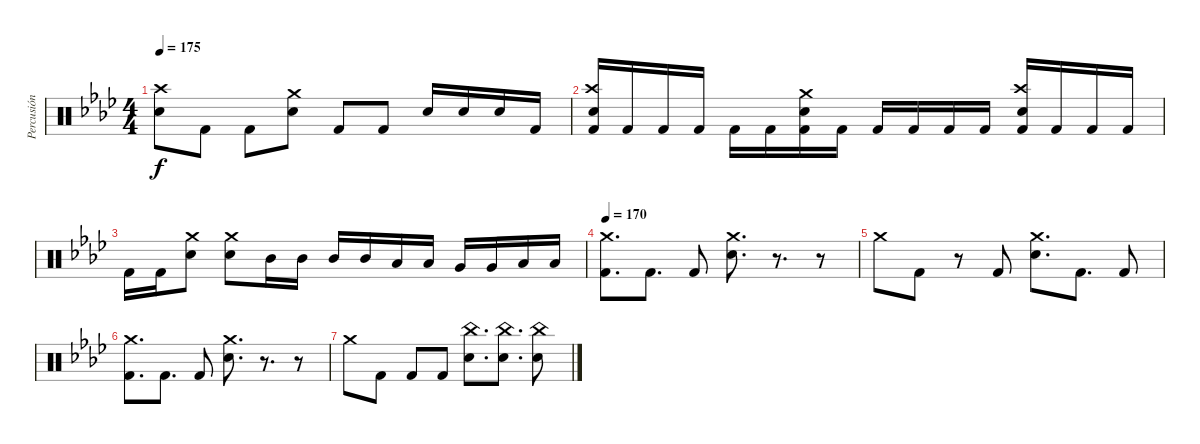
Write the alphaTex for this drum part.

\track ("Percusión" "Percusión") {instrument percussion}
\staff {score}
\articulation defaults
\ts (4 4)
\tempo 175
\clef neutral
\ks fminor
("Snare (hit) 2" "Crash high (hit)").8{dy f} "Kick (hit) 2".8 "Kick (hit) 2".8 ("Snare (hit) 2" "Crash medium (hit)").8 "Kick (hit) 2".8 "Kick (hit) 2".8 "Snare (hit) 2".16 "Snare (hit) 2".16 "Snare (hit) 2".16 "Kick (hit) 2".16 |
("Kick (hit) 2" "Snare (hit) 2" "Crash high (hit)").16 "Kick (hit) 2".16 "Kick (hit) 2".16 "Kick (hit) 2".16 "Kick (hit) 2".16 "Kick (hit) 2".16 ("Kick (hit) 2" "Snare (hit) 2" "Crash medium (hit)").16 "Kick (hit) 2".16 "Kick (hit) 2".16 "Kick (hit) 2".16 "Kick (hit) 2".16 "Kick (hit) 2".16 ("Kick (hit) 2" "Snare (hit) 2" "Crash high (hit)").16 "Kick (hit) 2".16 "Kick (hit) 2".16 "Kick (hit) 2".16 |
"Kick (hit) 2".16 "Kick (hit) 2".16 ("Snare (hit) 2" "Crash medium (hit)").8 ("Snare (hit) 2" "Crash medium (hit)").8 "Mid Tom (hit)".16 "Mid Tom (hit)".16 "Mid Tom (hit)".16 "Mid Tom (hit)".16 "Low Tom (hit)".16 "Low Tom (hit)".16 "Very Low Tom (hit)".16 "Very Low Tom (hit)".16 "Low Floor Tom (hit)".16 "Low Floor Tom (hit)".16 |
\tempo 170
("Kick (hit) 2" "Crash medium (hit)").8{d} "Kick (hit) 2".8{d} "Kick (hit) 2".8 ("Snare (hit) 2" "Crash medium (hit)").8{d} r.8{d} r.8 |
"Crash medium (hit)".8 "Kick (hit) 2".8 r.8 "Kick (hit) 2".8 ("Snare (hit) 2" "Crash medium (hit)").8{d} "Kick (hit) 2".8{d} "Kick (hit) 2".8 |
("Kick (hit) 2" "Crash medium (hit)").8{d} "Kick (hit) 2".8{d} "Kick (hit) 2".8 ("Snare (hit) 2" "Crash medium (hit)").8{d} r.8{d} r.8 |
"Crash medium (hit)".8 "Kick (hit) 2".8 "Kick (hit) 2".8 "Kick (hit) 2".8 ("Snare (hit) 2" "China (hit)").8{d} ("Snare (hit) 2" "China (hit)").8{d} ("Snare (hit) 2" "China (hit)").8
